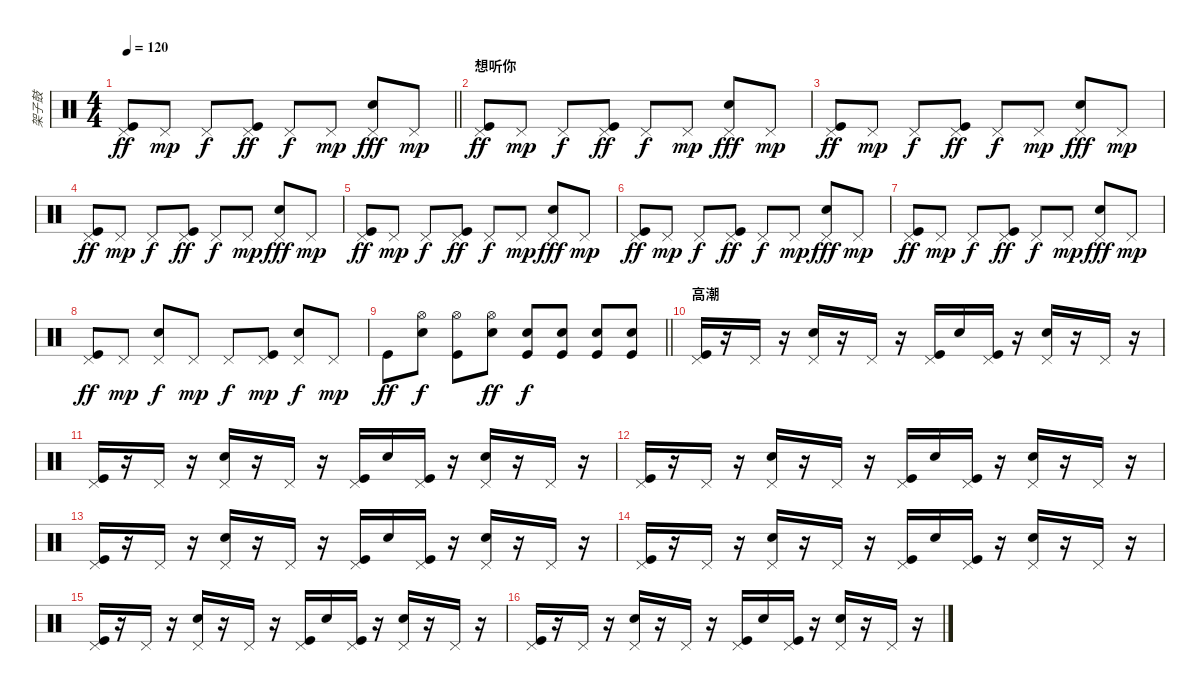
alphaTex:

\track ("架子鼓" "架子鼓") {instrument percussion}
\staff {score}
\articulation defaults
\ts (4 4)
\tempo 120
\clef neutral
\barLineRight lightlight
\ks c
("Pedal Hi-Hat (hit)" "Kick (hit)").8{dy ff} "Pedal Hi-Hat (hit)".8{dy mp} "Pedal Hi-Hat (hit)".8{dy f} ("Pedal Hi-Hat (hit)" "Kick (hit)").8{dy ff} "Pedal Hi-Hat (hit)".8{dy f} "Pedal Hi-Hat (hit)".8{dy mp} ("Pedal Hi-Hat (hit)" "Snare (hit) 2").8{dy fff} "Pedal Hi-Hat (hit)".8{dy mp} |
\section ("" "想听你")
("Pedal Hi-Hat (hit)" "Kick (hit)").8{dy ff} "Pedal Hi-Hat (hit)".8{dy mp} "Pedal Hi-Hat (hit)".8{dy f} ("Pedal Hi-Hat (hit)" "Kick (hit)").8{dy ff} "Pedal Hi-Hat (hit)".8{dy f} "Pedal Hi-Hat (hit)".8{dy mp} ("Pedal Hi-Hat (hit)" "Snare (hit) 2").8{dy fff} "Pedal Hi-Hat (hit)".8{dy mp} |
("Pedal Hi-Hat (hit)" "Kick (hit)").8{dy ff} "Pedal Hi-Hat (hit)".8{dy mp} "Pedal Hi-Hat (hit)".8{dy f} ("Pedal Hi-Hat (hit)" "Kick (hit)").8{dy ff} "Pedal Hi-Hat (hit)".8{dy f} "Pedal Hi-Hat (hit)".8{dy mp} ("Pedal Hi-Hat (hit)" "Snare (hit) 2").8{dy fff} "Pedal Hi-Hat (hit)".8{dy mp} |
("Pedal Hi-Hat (hit)" "Kick (hit)").8{dy ff} "Pedal Hi-Hat (hit)".8{dy mp} "Pedal Hi-Hat (hit)".8{dy f} ("Pedal Hi-Hat (hit)" "Kick (hit)").8{dy ff} "Pedal Hi-Hat (hit)".8{dy f} "Pedal Hi-Hat (hit)".8{dy mp} ("Pedal Hi-Hat (hit)" "Snare (hit) 2").8{dy fff} "Pedal Hi-Hat (hit)".8{dy mp} |
("Pedal Hi-Hat (hit)" "Kick (hit)").8{dy ff} "Pedal Hi-Hat (hit)".8{dy mp} "Pedal Hi-Hat (hit)".8{dy f} ("Pedal Hi-Hat (hit)" "Kick (hit)").8{dy ff} "Pedal Hi-Hat (hit)".8{dy f} "Pedal Hi-Hat (hit)".8{dy mp} ("Pedal Hi-Hat (hit)" "Snare (hit) 2").8{dy fff} "Pedal Hi-Hat (hit)".8{dy mp} |
("Pedal Hi-Hat (hit)" "Kick (hit)").8{dy ff} "Pedal Hi-Hat (hit)".8{dy mp} "Pedal Hi-Hat (hit)".8{dy f} ("Pedal Hi-Hat (hit)" "Kick (hit)").8{dy ff} "Pedal Hi-Hat (hit)".8{dy f} "Pedal Hi-Hat (hit)".8{dy mp} ("Pedal Hi-Hat (hit)" "Snare (hit) 2").8{dy fff} "Pedal Hi-Hat (hit)".8{dy mp} |
("Pedal Hi-Hat (hit)" "Kick (hit)").8{dy ff} "Pedal Hi-Hat (hit)".8{dy mp} "Pedal Hi-Hat (hit)".8{dy f} ("Pedal Hi-Hat (hit)" "Kick (hit)").8{dy ff} "Pedal Hi-Hat (hit)".8{dy f} "Pedal Hi-Hat (hit)".8{dy mp} ("Pedal Hi-Hat (hit)" "Snare (hit) 2").8{dy fff} "Pedal Hi-Hat (hit)".8{dy mp} |
("Pedal Hi-Hat (hit)" "Kick (hit)").8{dy ff} "Pedal Hi-Hat (hit)".8{dy mp} ("Pedal Hi-Hat (hit)" "Snare (hit) 2").8{dy f} "Pedal Hi-Hat (hit)".8{dy mp} "Pedal Hi-Hat (hit)".8{dy f} ("Pedal Hi-Hat (hit)" "Kick (hit)").8{dy mp} ("Pedal Hi-Hat (hit)" "Snare (hit) 2").8{dy f} "Pedal Hi-Hat (hit)".8{dy mp} |
\barLineRight lightlight "Kick (hit)".8{dy ff}
("Snare (hit) 2" "Hi-Hat (open)").8{dy f} ("Kick (hit)" "Hi-Hat (open)").8 ("Snare (hit) 2" "Hi-Hat (open)").8{dy ff} ("Kick (hit)" "Snare (hit) 2").8{dy f} ("Snare (hit) 2" "Kick (hit)").8 ("Kick (hit)" "Snare (hit) 2").8 ("Snare (hit) 2" "Kick (hit)").8 |
\section ("" "高潮")
("Pedal Hi-Hat (hit)" "Kick (hit)").16 r.16 "Pedal Hi-Hat (hit)".16 r.16 ("Pedal Hi-Hat (hit)" "Snare (hit) 2").16 r.16 "Pedal Hi-Hat (hit)".16 r.16 ("Pedal Hi-Hat (hit)" "Kick (hit)").16 "Snare (hit) 2".16 ("Pedal Hi-Hat (hit)" "Kick (hit)").16 r.16 ("Pedal Hi-Hat (hit)" "Snare (hit) 2").16 r.16 "Pedal Hi-Hat (hit)".16 r.16 |
("Pedal Hi-Hat (hit)" "Kick (hit)").16 r.16 "Pedal Hi-Hat (hit)".16 r.16 ("Pedal Hi-Hat (hit)" "Snare (hit) 2").16 r.16 "Pedal Hi-Hat (hit)".16 r.16 ("Pedal Hi-Hat (hit)" "Kick (hit)").16 "Snare (hit) 2".16 ("Pedal Hi-Hat (hit)" "Kick (hit)").16 r.16 ("Pedal Hi-Hat (hit)" "Snare (hit) 2").16 r.16 "Pedal Hi-Hat (hit)".16 r.16 |
("Pedal Hi-Hat (hit)" "Kick (hit)").16 r.16 "Pedal Hi-Hat (hit)".16 r.16 ("Pedal Hi-Hat (hit)" "Snare (hit) 2").16 r.16 "Pedal Hi-Hat (hit)".16 r.16 ("Pedal Hi-Hat (hit)" "Kick (hit)").16 "Snare (hit) 2".16 ("Pedal Hi-Hat (hit)" "Kick (hit)").16 r.16 ("Pedal Hi-Hat (hit)" "Snare (hit) 2").16 r.16 "Pedal Hi-Hat (hit)".16 r.16 |
("Pedal Hi-Hat (hit)" "Kick (hit)").16 r.16 "Pedal Hi-Hat (hit)".16 r.16 ("Pedal Hi-Hat (hit)" "Snare (hit) 2").16 r.16 "Pedal Hi-Hat (hit)".16 r.16 ("Pedal Hi-Hat (hit)" "Kick (hit)").16 "Snare (hit) 2".16 ("Pedal Hi-Hat (hit)" "Kick (hit)").16 r.16 ("Pedal Hi-Hat (hit)" "Snare (hit) 2").16 r.16 "Pedal Hi-Hat (hit)".16 r.16 |
("Pedal Hi-Hat (hit)" "Kick (hit)").16 r.16 "Pedal Hi-Hat (hit)".16 r.16 ("Pedal Hi-Hat (hit)" "Snare (hit) 2").16 r.16 "Pedal Hi-Hat (hit)".16 r.16 ("Pedal Hi-Hat (hit)" "Kick (hit)").16 "Snare (hit) 2".16 ("Pedal Hi-Hat (hit)" "Kick (hit)").16 r.16 ("Pedal Hi-Hat (hit)" "Snare (hit) 2").16 r.16 "Pedal Hi-Hat (hit)".16 r.16 |
("Pedal Hi-Hat (hit)" "Kick (hit)").16 r.16 "Pedal Hi-Hat (hit)".16 r.16 ("Pedal Hi-Hat (hit)" "Snare (hit) 2").16 r.16 "Pedal Hi-Hat (hit)".16 r.16 ("Pedal Hi-Hat (hit)" "Kick (hit)").16 "Snare (hit) 2".16 ("Pedal Hi-Hat (hit)" "Kick (hit)").16 r.16 ("Pedal Hi-Hat (hit)" "Snare (hit) 2").16 r.16 "Pedal Hi-Hat (hit)".16 r.16 |
("Pedal Hi-Hat (hit)" "Kick (hit)").16 r.16 "Pedal Hi-Hat (hit)".16 r.16 ("Pedal Hi-Hat (hit)" "Snare (hit) 2").16 r.16 "Pedal Hi-Hat (hit)".16 r.16 ("Pedal Hi-Hat (hit)" "Kick (hit)").16 "Snare (hit) 2".16 ("Pedal Hi-Hat (hit)" "Kick (hit)").16 r.16 ("Pedal Hi-Hat (hit)" "Snare (hit) 2").16 r.16 "Pedal Hi-Hat (hit)".16 r.16
